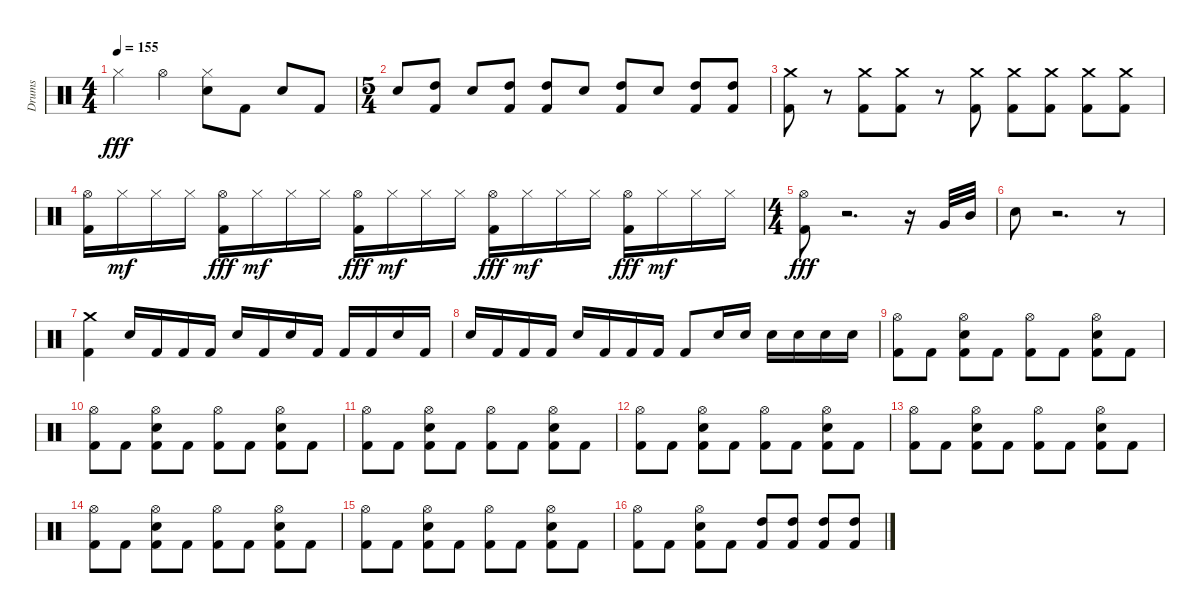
\track ("Drums" "Drums") {instrument percussion}
\staff {score}
\articulation defaults
\ts (4 4)
\tempo 155
\clef neutral
\ks c "Hi-Hat (closed)".4{dy fff} "Hi-Hat (open)".4
("Electric Snare (hit)" "Hi-Hat (closed)").8 "Kick (hit) 2".8 "Electric Snare (hit)".8 "Kick (hit) 2".8 |
\ts (5 4)
"Electric Snare (hit)".8 ("High Tom (hit)" "Kick (hit) 2").8 "Electric Snare (hit)".8 ("High Tom (hit)" "Kick (hit) 2").8 ("High Tom (hit)" "Kick (hit) 2").8 "Electric Snare (hit)".8 ("High Tom (hit)" "Kick (hit) 2").8 "Electric Snare (hit)".8 ("High Tom (hit)" "Kick (hit) 2").8 ("High Tom (hit)" "Kick (hit) 2").8 |
("Crash medium (hit)" "Kick (hit) 2").8 r.8 ("Crash medium (hit)" "Kick (hit) 2").8 ("Crash medium (hit)" "Kick (hit) 2").8 r.8 ("Crash medium (hit)" "Kick (hit) 2").8 ("Crash medium (hit)" "Kick (hit) 2").8 ("Crash medium (hit)" "Kick (hit) 2").8 ("Crash medium (hit)" "Kick (hit) 2").8 ("Crash medium (hit)" "Kick (hit) 2").8 |
("Hi-Hat (open)" "Kick (hit) 2").16 "Hi-Hat (closed)".16{dy mf} "Hi-Hat (closed)".16 "Hi-Hat (closed)".16 ("Hi-Hat (open)" "Kick (hit) 2").16{dy fff} "Hi-Hat (closed)".16{dy mf} "Hi-Hat (closed)".16 "Hi-Hat (closed)".16 ("Hi-Hat (open)" "Kick (hit) 2").16{dy fff} "Hi-Hat (closed)".16{dy mf} "Hi-Hat (closed)".16 "Hi-Hat (closed)".16 ("Hi-Hat (open)" "Kick (hit) 2").16{dy fff} "Hi-Hat (closed)".16{dy mf} "Hi-Hat (closed)".16 "Hi-Hat (closed)".16 ("Hi-Hat (open)" "Kick (hit) 2").16{dy fff} "Hi-Hat (closed)".16{dy mf} "Hi-Hat (closed)".16 "Hi-Hat (closed)".16 |
\ts (4 4)
("Hi-Hat (open)" "Kick (hit) 2").8{dy fff} r.2{d} r.16 "Very Low Tom (hit)".32 "Mid Tom (hit)".32 |
"Electric Snare (hit)".8 r.2{d} r.8 |
("Crash medium (hit)" "Kick (hit) 2").4 "Electric Snare (hit)".16 "Kick (hit) 2".16 "Kick (hit) 2".16 "Kick (hit) 2".16 "Electric Snare (hit)".16 "Kick (hit) 2".16 "Electric Snare (hit)".16 "Kick (hit) 2".16 "Kick (hit) 2".16 "Kick (hit) 2".16 "Electric Snare (hit)".16 "Kick (hit) 2".16 |
"Electric Snare (hit)".16 "Kick (hit) 2".16 "Kick (hit) 2".16 "Kick (hit) 2".16 "Electric Snare (hit)".16 "Kick (hit) 2".16 "Kick (hit) 2".16 "Kick (hit) 2".16 "Kick (hit) 2".8 "Electric Snare (hit)".16 "Electric Snare (hit)".16 "Electric Snare (hit)".16 "Electric Snare (hit)".16 "Electric Snare (hit)".16 "Electric Snare (hit)".16 |
("Hi-Hat (open)" "Kick (hit) 2").8 "Kick (hit) 2".8 ("Electric Snare (hit)" "Hi-Hat (open)" "Kick (hit) 2").8 "Kick (hit) 2".8 ("Hi-Hat (open)" "Kick (hit) 2").8 "Kick (hit) 2".8 ("Electric Snare (hit)" "Hi-Hat (open)" "Kick (hit) 2").8 "Kick (hit) 2".8 |
("Hi-Hat (open)" "Kick (hit) 2").8 "Kick (hit) 2".8 ("Electric Snare (hit)" "Hi-Hat (open)" "Kick (hit) 2").8 "Kick (hit) 2".8 ("Hi-Hat (open)" "Kick (hit) 2").8 "Kick (hit) 2".8 ("Electric Snare (hit)" "Hi-Hat (open)" "Kick (hit) 2").8 "Kick (hit) 2".8 |
("Hi-Hat (open)" "Kick (hit) 2").8 "Kick (hit) 2".8 ("Electric Snare (hit)" "Hi-Hat (open)" "Kick (hit) 2").8 "Kick (hit) 2".8 ("Hi-Hat (open)" "Kick (hit) 2").8 "Kick (hit) 2".8 ("Electric Snare (hit)" "Hi-Hat (open)" "Kick (hit) 2").8 "Kick (hit) 2".8 |
("Hi-Hat (open)" "Kick (hit) 2").8 "Kick (hit) 2".8 ("Electric Snare (hit)" "Hi-Hat (open)" "Kick (hit) 2").8 "Kick (hit) 2".8 ("Hi-Hat (open)" "Kick (hit) 2").8 "Kick (hit) 2".8 ("Electric Snare (hit)" "Hi-Hat (open)" "Kick (hit) 2").8 "Kick (hit) 2".8 |
("Hi-Hat (open)" "Kick (hit) 2").8 "Kick (hit) 2".8 ("Electric Snare (hit)" "Hi-Hat (open)" "Kick (hit) 2").8 "Kick (hit) 2".8 ("Hi-Hat (open)" "Kick (hit) 2").8 "Kick (hit) 2".8 ("Electric Snare (hit)" "Hi-Hat (open)" "Kick (hit) 2").8 "Kick (hit) 2".8 |
("Hi-Hat (open)" "Kick (hit) 2").8 "Kick (hit) 2".8 ("Electric Snare (hit)" "Hi-Hat (open)" "Kick (hit) 2").8 "Kick (hit) 2".8 ("Hi-Hat (open)" "Kick (hit) 2").8 "Kick (hit) 2".8 ("Electric Snare (hit)" "Hi-Hat (open)" "Kick (hit) 2").8 "Kick (hit) 2".8 |
("Hi-Hat (open)" "Kick (hit) 2").8 "Kick (hit) 2".8 ("Electric Snare (hit)" "Hi-Hat (open)" "Kick (hit) 2").8 "Kick (hit) 2".8 ("Hi-Hat (open)" "Kick (hit) 2").8 "Kick (hit) 2".8 ("Electric Snare (hit)" "Hi-Hat (open)" "Kick (hit) 2").8 "Kick (hit) 2".8 |
("Hi-Hat (open)" "Kick (hit) 2").8 "Kick (hit) 2".8 ("Electric Snare (hit)" "Hi-Hat (open)" "Kick (hit) 2").8 "Kick (hit) 2".8 ("High Tom (hit)" "Kick (hit) 2").8 ("High Tom (hit)" "Kick (hit) 2").8 ("High Tom (hit)" "Kick (hit) 2").8 ("High Tom (hit)" "Kick (hit) 2").8
